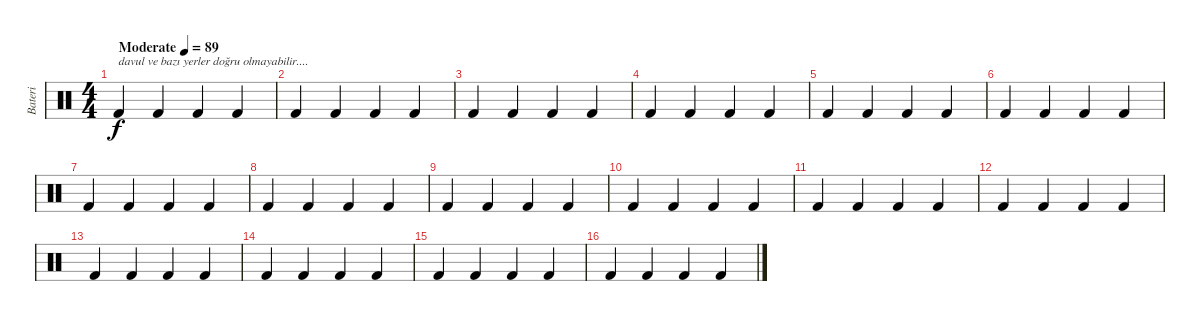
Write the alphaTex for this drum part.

\track ("Bateri" "Bateri") {instrument percussion}
\staff {score}
\articulation defaults
\ts (4 4)
\tempo (89 "Moderate")
\clef neutral
\ks c "Kick (hit) 2".4{txt "davul ve bazı yerler doğru olmayabilir...." dy f} "Kick (hit) 2".4 "Kick (hit) 2".4 "Kick (hit) 2".4
|
"Kick (hit) 2".4 "Kick (hit) 2".4 "Kick (hit) 2".4 "Kick (hit) 2".4 |
"Kick (hit) 2".4 "Kick (hit) 2".4 "Kick (hit) 2".4 "Kick (hit) 2".4 |
"Kick (hit) 2".4 "Kick (hit) 2".4 "Kick (hit) 2".4 "Kick (hit) 2".4 |
"Kick (hit) 2".4 "Kick (hit) 2".4 "Kick (hit) 2".4 "Kick (hit) 2".4 |
"Kick (hit) 2".4 "Kick (hit) 2".4 "Kick (hit) 2".4 "Kick (hit) 2".4 |
"Kick (hit) 2".4 "Kick (hit) 2".4 "Kick (hit) 2".4 "Kick (hit) 2".4 |
"Kick (hit) 2".4 "Kick (hit) 2".4 "Kick (hit) 2".4 "Kick (hit) 2".4 |
"Kick (hit) 2".4 "Kick (hit) 2".4 "Kick (hit) 2".4 "Kick (hit) 2".4 |
"Kick (hit) 2".4 "Kick (hit) 2".4 "Kick (hit) 2".4 "Kick (hit) 2".4 |
"Kick (hit) 2".4 "Kick (hit) 2".4 "Kick (hit) 2".4 "Kick (hit) 2".4 |
"Kick (hit) 2".4 "Kick (hit) 2".4 "Kick (hit) 2".4 "Kick (hit) 2".4 |
"Kick (hit) 2".4 "Kick (hit) 2".4 "Kick (hit) 2".4 "Kick (hit) 2".4 |
"Kick (hit) 2".4 "Kick (hit) 2".4 "Kick (hit) 2".4 "Kick (hit) 2".4 |
"Kick (hit) 2".4 "Kick (hit) 2".4 "Kick (hit) 2".4 "Kick (hit) 2".4 |
"Kick (hit) 2".4 "Kick (hit) 2".4 "Kick (hit) 2".4 "Kick (hit) 2".4
